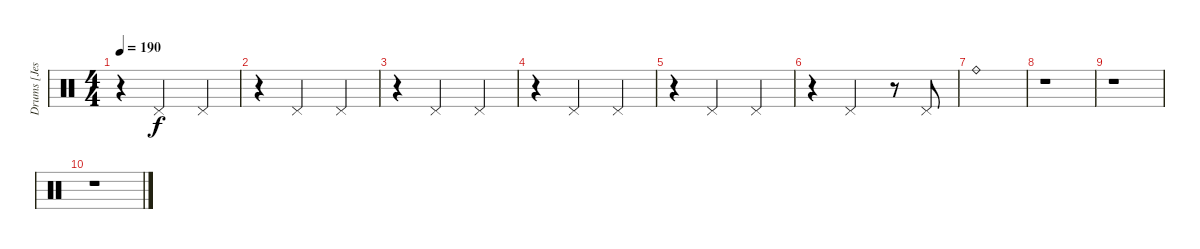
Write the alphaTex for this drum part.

\track ("Drums [Jesse Ingelevics]" "Drums [Jes") {instrument percussion}
\staff {score}
\articulation defaults
\ts (4 4)
\tempo 190
\clef neutral
\ks c
r.4{dy f} "Pedal Hi-Hat (hit)".2 "Pedal Hi-Hat (hit)".4 |
r.4 "Pedal Hi-Hat (hit)".2 "Pedal Hi-Hat (hit)".4 |
r.4 "Pedal Hi-Hat (hit)".2 "Pedal Hi-Hat (hit)".4 |
r.4 "Pedal Hi-Hat (hit)".2 "Pedal Hi-Hat (hit)".4 |
r.4 "Pedal Hi-Hat (hit)".2 "Pedal Hi-Hat (hit)".4 |
r.4 "Pedal Hi-Hat (hit)".2 r.8 "Pedal Hi-Hat (hit)".8 |
"Ride (bell)".1 |
r.1 |
r.1 |
r.1
